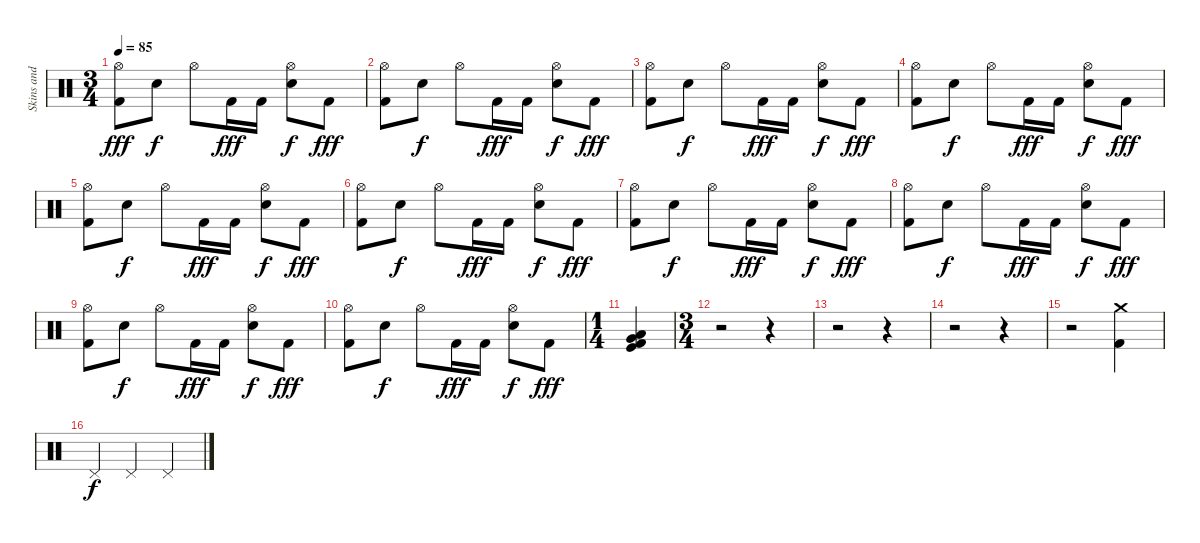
\track ("Skins and Cymbals" "Skins and ") {instrument percussion}
\staff {score}
\articulation defaults
\ts (3 4)
\tempo 85
\clef neutral
\ks c
("Hi-Hat (open)" "Kick (hit) 2").8{dy fff} "Electric Snare (hit)".8{dy f} "Hi-Hat (open)".8 "Kick (hit) 2".16{dy fff} "Kick (hit) 2".16 ("Hi-Hat (open)" "Electric Snare (hit)").8{dy f} "Kick (hit) 2".8{dy fff} |
("Hi-Hat (open)" "Kick (hit) 2").8 "Electric Snare (hit)".8{dy f} "Hi-Hat (open)".8 "Kick (hit) 2".16{dy fff} "Kick (hit) 2".16 ("Hi-Hat (open)" "Electric Snare (hit)").8{dy f} "Kick (hit) 2".8{dy fff} |
("Hi-Hat (open)" "Kick (hit) 2").8 "Electric Snare (hit)".8{dy f} "Hi-Hat (open)".8 "Kick (hit) 2".16{dy fff} "Kick (hit) 2".16 ("Hi-Hat (open)" "Electric Snare (hit)").8{dy f} "Kick (hit) 2".8{dy fff} |
("Hi-Hat (open)" "Kick (hit) 2").8 "Electric Snare (hit)".8{dy f} "Hi-Hat (open)".8 "Kick (hit) 2".16{dy fff} "Kick (hit) 2".16 ("Hi-Hat (open)" "Electric Snare (hit)").8{dy f} "Kick (hit) 2".8{dy fff} |
("Hi-Hat (open)" "Kick (hit) 2").8 "Electric Snare (hit)".8{dy f} "Hi-Hat (open)".8 "Kick (hit) 2".16{dy fff} "Kick (hit) 2".16 ("Hi-Hat (open)" "Electric Snare (hit)").8{dy f} "Kick (hit) 2".8{dy fff} |
("Hi-Hat (open)" "Kick (hit) 2").8 "Electric Snare (hit)".8{dy f} "Hi-Hat (open)".8 "Kick (hit) 2".16{dy fff} "Kick (hit) 2".16 ("Hi-Hat (open)" "Electric Snare (hit)").8{dy f} "Kick (hit) 2".8{dy fff} |
("Hi-Hat (open)" "Kick (hit) 2").8 "Electric Snare (hit)".8{dy f} "Hi-Hat (open)".8 "Kick (hit) 2".16{dy fff} "Kick (hit) 2".16 ("Hi-Hat (open)" "Electric Snare (hit)").8{dy f} "Kick (hit) 2".8{dy fff} |
("Hi-Hat (open)" "Kick (hit) 2").8 "Electric Snare (hit)".8{dy f} "Hi-Hat (open)".8 "Kick (hit) 2".16{dy fff} "Kick (hit) 2".16 ("Hi-Hat (open)" "Electric Snare (hit)").8{dy f} "Kick (hit) 2".8{dy fff} |
("Hi-Hat (open)" "Kick (hit) 2").8 "Electric Snare (hit)".8{dy f} "Hi-Hat (open)".8 "Kick (hit) 2".16{dy fff} "Kick (hit) 2".16 ("Hi-Hat (open)" "Electric Snare (hit)").8{dy f} "Kick (hit) 2".8{dy fff} |
("Hi-Hat (open)" "Kick (hit) 2").8 "Electric Snare (hit)".8{dy f} "Hi-Hat (open)".8 "Kick (hit) 2".16{dy fff} "Kick (hit) 2".16 ("Hi-Hat (open)" "Electric Snare (hit)").8{dy f} "Kick (hit) 2".8{dy fff} |
\ts (1 4)
("Very Low Tom (hit)" "Low Floor Tom (hit)" "Kick (hit) 2" "Kick (hit)").4 |
\ts (3 4)
r.2 r.4 |
r.2 r.4 |
r.2 r.4 |
r.2 ("Crash medium (hit)" "Kick (hit) 2").4 |
"Pedal Hi-Hat (hit)".4{dy f} "Pedal Hi-Hat (hit)".4 "Pedal Hi-Hat (hit)".4
